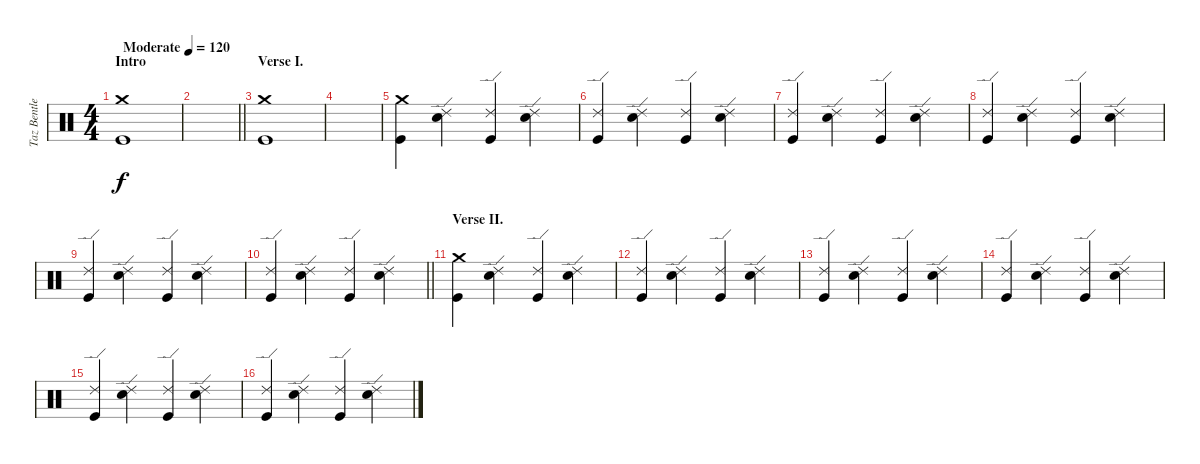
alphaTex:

\track ("Taz Bentley - drums" "Taz Bentle") {instrument percussion}
\staff
\articulation defaults
\ts (4 4)
\section ("" "Intro")
\tempo (120 "Moderate")
\clef neutral
\ks c
("Crash medium (hit)" "Kick (hit)").1{dy f} |
\barLineRight lightlight
|
\section ("" "Verse I.")
("Crash medium (hit)" "Kick (hit)").1 |
|
("Crash medium (hit)" "Kick (hit)").4 ("Ride (edge) 2" "Electric Snare (hit)").4 ("Ride (edge) 2" "Kick (hit)").4 ("Ride (edge) 2" "Electric Snare (hit)").4 |
("Ride (edge) 2" "Kick (hit)").4 ("Ride (edge) 2" "Electric Snare (hit)").4 ("Ride (edge) 2" "Kick (hit)").4 ("Ride (edge) 2" "Electric Snare (hit)").4 |
("Ride (edge) 2" "Kick (hit)").4 ("Ride (edge) 2" "Electric Snare (hit)").4 ("Ride (edge) 2" "Kick (hit)").4 ("Ride (edge) 2" "Electric Snare (hit)").4 |
("Ride (edge) 2" "Kick (hit)").4 ("Ride (edge) 2" "Electric Snare (hit)").4 ("Ride (edge) 2" "Kick (hit)").4 ("Ride (edge) 2" "Electric Snare (hit)").4 |
("Ride (edge) 2" "Kick (hit)").4 ("Ride (edge) 2" "Electric Snare (hit)").4 ("Ride (edge) 2" "Kick (hit)").4 ("Ride (edge) 2" "Electric Snare (hit)").4 |
\barLineRight lightlight
("Ride (edge) 2" "Kick (hit)").4 ("Ride (edge) 2" "Electric Snare (hit)").4 ("Ride (edge) 2" "Kick (hit)").4 ("Ride (edge) 2" "Electric Snare (hit)").4 |
\section ("" "Verse II.")
("Crash medium (hit)" "Kick (hit)").4 ("Ride (edge) 2" "Electric Snare (hit)").4 ("Ride (edge) 2" "Kick (hit)").4 ("Ride (edge) 2" "Electric Snare (hit)").4 |
("Ride (edge) 2" "Kick (hit)").4 ("Ride (edge) 2" "Electric Snare (hit)").4 ("Ride (edge) 2" "Kick (hit)").4 ("Ride (edge) 2" "Electric Snare (hit)").4 |
("Ride (edge) 2" "Kick (hit)").4 ("Ride (edge) 2" "Electric Snare (hit)").4 ("Ride (edge) 2" "Kick (hit)").4 ("Ride (edge) 2" "Electric Snare (hit)").4 |
("Ride (edge) 2" "Kick (hit)").4 ("Ride (edge) 2" "Electric Snare (hit)").4 ("Ride (edge) 2" "Kick (hit)").4 ("Ride (edge) 2" "Electric Snare (hit)").4 |
("Ride (edge) 2" "Kick (hit)").4 ("Ride (edge) 2" "Electric Snare (hit)").4 ("Ride (edge) 2" "Kick (hit)").4 ("Ride (edge) 2" "Electric Snare (hit)").4 |
("Ride (edge) 2" "Kick (hit)").4 ("Ride (edge) 2" "Electric Snare (hit)").4 ("Ride (edge) 2" "Kick (hit)").4 ("Ride (edge) 2" "Electric Snare (hit)").4
